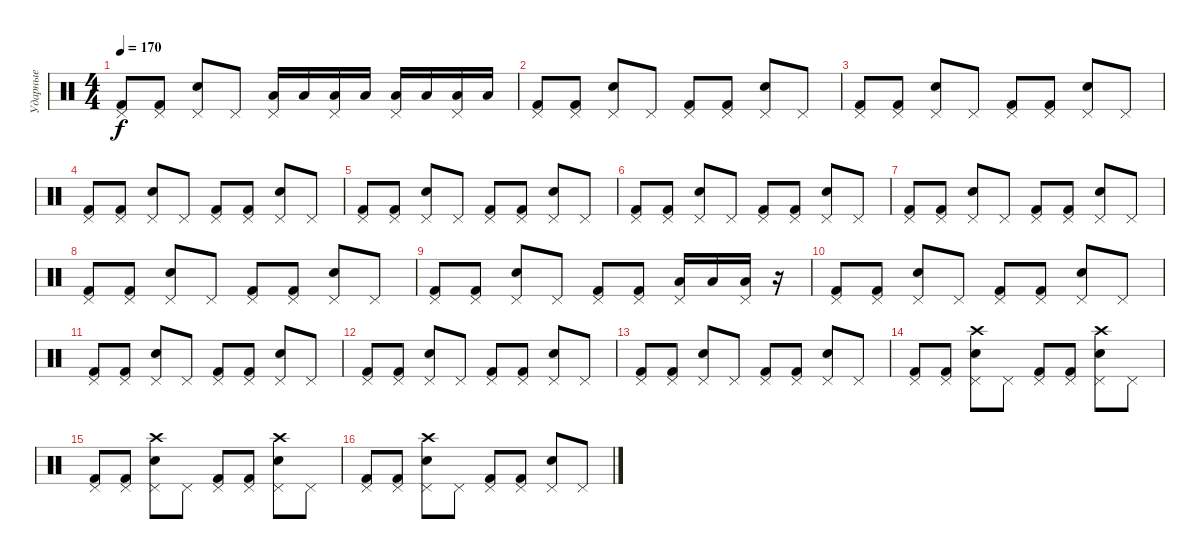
\track ("Ударные" "Ударные") {instrument percussion}
\staff {score}
\articulation defaults
\ts (4 4)
\tempo 170
\clef neutral
\ks c
("Kick (hit) 2" "Pedal Hi-Hat (hit)").8{dy f} ("Pedal Hi-Hat (hit)" "Kick (hit) 2").8 ("Electric Snare (hit)" "Pedal Hi-Hat (hit)").8 "Pedal Hi-Hat (hit)".8 ("Pedal Hi-Hat (hit)" "Low Tom (hit)").16 "Low Tom (hit)".16 ("Low Tom (hit)" "Pedal Hi-Hat (hit)").16 "Low Tom (hit)".16 ("Pedal Hi-Hat (hit)" "Low Tom (hit)").16 "Low Tom (hit)".16 ("Pedal Hi-Hat (hit)" "Low Tom (hit)").16 "Low Tom (hit)".16 |
("Pedal Hi-Hat (hit)" "Kick (hit) 2").8 ("Pedal Hi-Hat (hit)" "Kick (hit) 2").8 ("Pedal Hi-Hat (hit)" "Electric Snare (hit)").8 "Pedal Hi-Hat (hit)".8 ("Pedal Hi-Hat (hit)" "Kick (hit) 2").8 ("Pedal Hi-Hat (hit)" "Kick (hit) 2").8 ("Pedal Hi-Hat (hit)" "Electric Snare (hit)").8 "Pedal Hi-Hat (hit)".8 |
("Pedal Hi-Hat (hit)" "Kick (hit) 2").8 ("Pedal Hi-Hat (hit)" "Kick (hit) 2").8 ("Pedal Hi-Hat (hit)" "Electric Snare (hit)").8 "Pedal Hi-Hat (hit)".8 ("Pedal Hi-Hat (hit)" "Kick (hit) 2").8 ("Pedal Hi-Hat (hit)" "Kick (hit) 2").8 ("Pedal Hi-Hat (hit)" "Electric Snare (hit)").8 "Pedal Hi-Hat (hit)".8 |
("Kick (hit) 2" "Pedal Hi-Hat (hit)").8 ("Pedal Hi-Hat (hit)" "Kick (hit) 2").8 ("Pedal Hi-Hat (hit)" "Electric Snare (hit)").8 "Pedal Hi-Hat (hit)".8 ("Kick (hit) 2" "Pedal Hi-Hat (hit)").8 ("Pedal Hi-Hat (hit)" "Kick (hit) 2").8 ("Electric Snare (hit)" "Pedal Hi-Hat (hit)").8 "Pedal Hi-Hat (hit)".8 |
("Pedal Hi-Hat (hit)" "Kick (hit) 2").8 ("Kick (hit) 2" "Pedal Hi-Hat (hit)").8 ("Pedal Hi-Hat (hit)" "Electric Snare (hit)").8 "Pedal Hi-Hat (hit)".8 ("Kick (hit) 2" "Pedal Hi-Hat (hit)").8 ("Pedal Hi-Hat (hit)" "Kick (hit) 2").8 ("Pedal Hi-Hat (hit)" "Electric Snare (hit)").8 "Pedal Hi-Hat (hit)".8 |
("Pedal Hi-Hat (hit)" "Kick (hit) 2").8 ("Pedal Hi-Hat (hit)" "Kick (hit) 2").8 ("Pedal Hi-Hat (hit)" "Electric Snare (hit)").8 "Pedal Hi-Hat (hit)".8 ("Pedal Hi-Hat (hit)" "Kick (hit) 2").8 ("Pedal Hi-Hat (hit)" "Kick (hit) 2").8 ("Pedal Hi-Hat (hit)" "Electric Snare (hit)").8 "Pedal Hi-Hat (hit)".8 |
("Pedal Hi-Hat (hit)" "Kick (hit) 2").8 ("Pedal Hi-Hat (hit)" "Kick (hit) 2").8 ("Pedal Hi-Hat (hit)" "Electric Snare (hit)").8 "Pedal Hi-Hat (hit)".8 ("Pedal Hi-Hat (hit)" "Kick (hit) 2").8 ("Pedal Hi-Hat (hit)" "Kick (hit) 2").8 ("Pedal Hi-Hat (hit)" "Electric Snare (hit)").8 "Pedal Hi-Hat (hit)".8 |
("Kick (hit) 2" "Pedal Hi-Hat (hit)").8 ("Pedal Hi-Hat (hit)" "Kick (hit) 2").8 ("Pedal Hi-Hat (hit)" "Electric Snare (hit)").8 "Pedal Hi-Hat (hit)".8 ("Kick (hit) 2" "Pedal Hi-Hat (hit)").8 ("Pedal Hi-Hat (hit)" "Kick (hit) 2").8 ("Electric Snare (hit)" "Pedal Hi-Hat (hit)").8 "Pedal Hi-Hat (hit)".8 |
("Kick (hit) 2" "Pedal Hi-Hat (hit)").8 ("Pedal Hi-Hat (hit)" "Kick (hit) 2").8 ("Electric Snare (hit)" "Pedal Hi-Hat (hit)").8 "Pedal Hi-Hat (hit)".8 ("Pedal Hi-Hat (hit)" "Kick (hit) 2").8 ("Pedal Hi-Hat (hit)" "Kick (hit) 2").8 ("Pedal Hi-Hat (hit)" "Low Tom (hit)").16 "Low Tom (hit)".16 ("Pedal Hi-Hat (hit)" "Low Tom (hit)").16 r.16 |
("Pedal Hi-Hat (hit)" "Kick (hit) 2").8 ("Pedal Hi-Hat (hit)" "Kick (hit) 2").8 ("Pedal Hi-Hat (hit)" "Electric Snare (hit)").8 "Pedal Hi-Hat (hit)".8 ("Pedal Hi-Hat (hit)" "Kick (hit) 2").8 ("Pedal Hi-Hat (hit)" "Kick (hit) 2").8 ("Pedal Hi-Hat (hit)" "Electric Snare (hit)").8 "Pedal Hi-Hat (hit)".8 |
("Pedal Hi-Hat (hit)" "Kick (hit) 2").8 ("Pedal Hi-Hat (hit)" "Kick (hit) 2").8 ("Pedal Hi-Hat (hit)" "Electric Snare (hit)").8 "Pedal Hi-Hat (hit)".8 ("Pedal Hi-Hat (hit)" "Kick (hit) 2").8 ("Pedal Hi-Hat (hit)" "Kick (hit) 2").8 ("Pedal Hi-Hat (hit)" "Electric Snare (hit)").8 "Pedal Hi-Hat (hit)".8 |
("Kick (hit) 2" "Pedal Hi-Hat (hit)").8 ("Pedal Hi-Hat (hit)" "Kick (hit) 2").8 ("Pedal Hi-Hat (hit)" "Electric Snare (hit)").8 "Pedal Hi-Hat (hit)".8 ("Kick (hit) 2" "Pedal Hi-Hat (hit)").8 ("Kick (hit) 2" "Pedal Hi-Hat (hit)").8 ("Pedal Hi-Hat (hit)" "Electric Snare (hit)").8 "Pedal Hi-Hat (hit)".8 |
("Pedal Hi-Hat (hit)" "Kick (hit) 2").8 ("Kick (hit) 2" "Pedal Hi-Hat (hit)").8 ("Pedal Hi-Hat (hit)" "Electric Snare (hit)").8 "Pedal Hi-Hat (hit)".8 ("Pedal Hi-Hat (hit)" "Kick (hit) 2").8 ("Kick (hit) 2" "Pedal Hi-Hat (hit)").8 ("Electric Snare (hit)" "Pedal Hi-Hat (hit)").8 "Pedal Hi-Hat (hit)".8 |
("Pedal Hi-Hat (hit)" "Kick (hit) 2").8 ("Pedal Hi-Hat (hit)" "Kick (hit) 2").8 ("Crash high (hit)" "Electric Snare (hit)" "Pedal Hi-Hat (hit)").8 "Pedal Hi-Hat (hit)".8 ("Pedal Hi-Hat (hit)" "Kick (hit) 2").8 ("Pedal Hi-Hat (hit)" "Kick (hit) 2").8 ("Crash high (hit)" "Pedal Hi-Hat (hit)" "Electric Snare (hit)").8 "Pedal Hi-Hat (hit)".8 |
("Pedal Hi-Hat (hit)" "Kick (hit) 2").8 ("Pedal Hi-Hat (hit)" "Kick (hit) 2").8 ("Crash high (hit)" "Pedal Hi-Hat (hit)" "Electric Snare (hit)").8 "Pedal Hi-Hat (hit)".8 ("Pedal Hi-Hat (hit)" "Kick (hit) 2").8 ("Pedal Hi-Hat (hit)" "Kick (hit) 2").8 ("Crash high (hit)" "Pedal Hi-Hat (hit)" "Electric Snare (hit)").8 "Pedal Hi-Hat (hit)".8 |
("Kick (hit) 2" "Pedal Hi-Hat (hit)").8 ("Pedal Hi-Hat (hit)" "Kick (hit) 2").8 ("Crash high (hit)" "Pedal Hi-Hat (hit)" "Electric Snare (hit)").8 "Pedal Hi-Hat (hit)".8 ("Kick (hit) 2" "Pedal Hi-Hat (hit)").8 ("Pedal Hi-Hat (hit)" "Kick (hit) 2").8 ("Electric Snare (hit)" "Pedal Hi-Hat (hit)").8 "Pedal Hi-Hat (hit)".8
